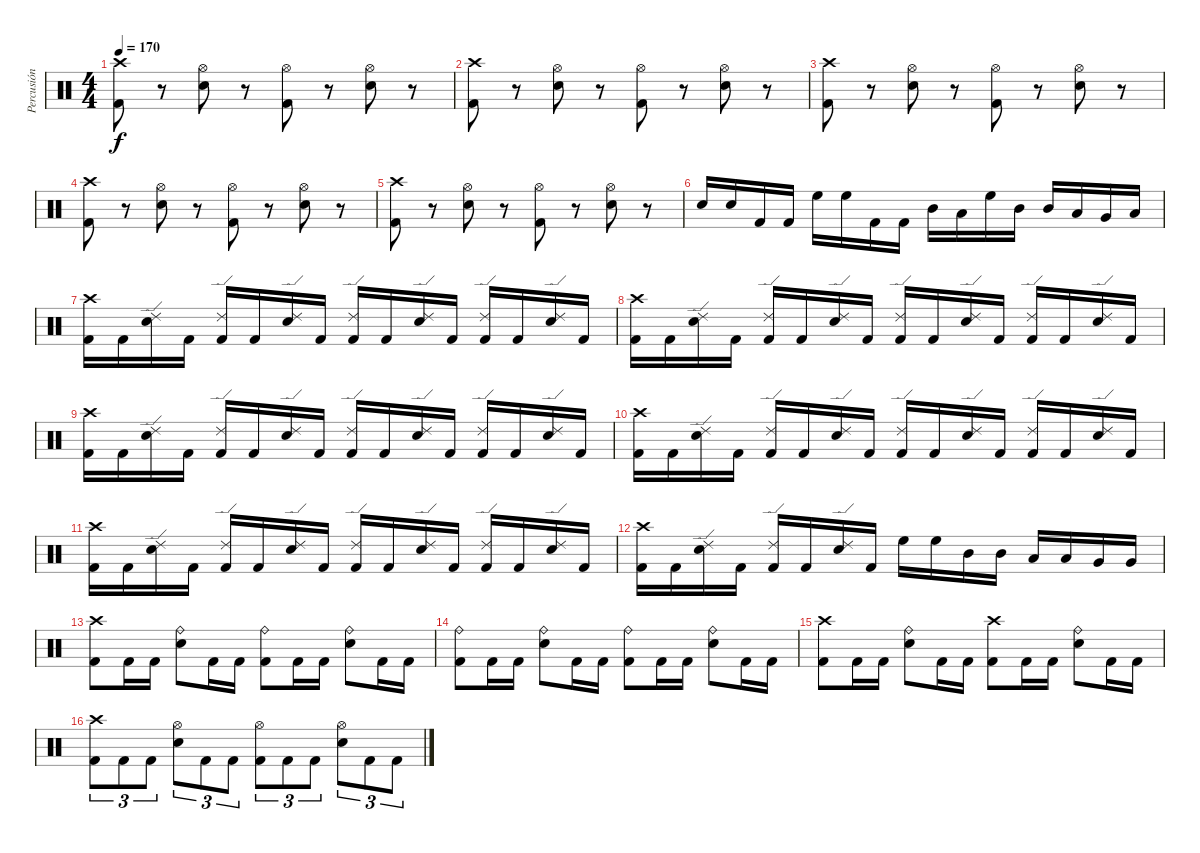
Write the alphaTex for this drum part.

\track ("Percusión" "Percusión") {instrument percussion}
\staff {score}
\articulation defaults
\ts (4 4)
\tempo 170
\clef neutral
\ks c
("Crash high (hit)" "Kick (hit) 2").8{dy f} r.8 ("Hi-Hat (open)" "Electric Snare (hit)").8 r.8 ("Hi-Hat (open)" "Kick (hit) 2").8 r.8 ("Hi-Hat (open)" "Electric Snare (hit)").8 r.8 |
("Crash high (hit)" "Kick (hit) 2").8 r.8 ("Hi-Hat (open)" "Electric Snare (hit)").8 r.8 ("Hi-Hat (open)" "Kick (hit) 2").8 r.8 ("Hi-Hat (open)" "Electric Snare (hit)").8 r.8 |
("Crash high (hit)" "Kick (hit) 2").8 r.8 ("Hi-Hat (open)" "Electric Snare (hit)").8 r.8 ("Hi-Hat (open)" "Kick (hit) 2").8 r.8 ("Hi-Hat (open)" "Electric Snare (hit)").8 r.8 |
("Crash high (hit)" "Kick (hit) 2").8 r.8 ("Hi-Hat (open)" "Electric Snare (hit)").8 r.8 ("Hi-Hat (open)" "Kick (hit) 2").8 r.8 ("Hi-Hat (open)" "Electric Snare (hit)").8 r.8 |
("Crash high (hit)" "Kick (hit) 2").8 r.8 ("Hi-Hat (open)" "Electric Snare (hit)").8 r.8 ("Hi-Hat (open)" "Kick (hit) 2").8 r.8 ("Hi-Hat (open)" "Electric Snare (hit)").8 r.8 |
"Electric Snare (hit)".16 "Electric Snare (hit)".16 "Kick (hit) 2".16 "Kick (hit) 2".16 "High Floor Tom (hit)".16 "High Floor Tom (hit)".16 "Kick (hit) 2".16 "Kick (hit) 2".16 "Mid Tom (hit)".16 "Low Tom (hit)".16 "High Floor Tom (hit)".16 "Mid Tom (hit)".16 "Mid Tom (hit)".16 "Low Tom (hit)".16 "Very Low Tom (hit)".16 "Low Floor Tom (hit)".16 |
("Crash high (hit)" "Kick (hit) 2").16 "Kick (hit) 2".16 ("Ride (edge) 2" "Electric Snare (hit)").16 "Kick (hit) 2".16 ("Ride (edge) 2" "Kick (hit) 2").16 "Kick (hit) 2".16 ("Ride (edge) 2" "Electric Snare (hit)").16 "Kick (hit) 2".16 ("Ride (edge) 2" "Kick (hit) 2").16 "Kick (hit) 2".16 ("Ride (edge) 2" "Electric Snare (hit)").16 "Kick (hit) 2".16 ("Ride (edge) 2" "Kick (hit) 2").16 "Kick (hit) 2".16 ("Ride (edge) 2" "Electric Snare (hit)").16 "Kick (hit) 2".16 |
("Crash high (hit)" "Kick (hit) 2").16 "Kick (hit) 2".16 ("Ride (edge) 2" "Electric Snare (hit)").16 "Kick (hit) 2".16 ("Ride (edge) 2" "Kick (hit) 2").16 "Kick (hit) 2".16 ("Ride (edge) 2" "Electric Snare (hit)").16 "Kick (hit) 2".16 ("Ride (edge) 2" "Kick (hit) 2").16 "Kick (hit) 2".16 ("Ride (edge) 2" "Electric Snare (hit)").16 "Kick (hit) 2".16 ("Ride (edge) 2" "Kick (hit) 2").16 "Kick (hit) 2".16 ("Ride (edge) 2" "Electric Snare (hit)").16 "Kick (hit) 2".16 |
("Crash high (hit)" "Kick (hit) 2").16 "Kick (hit) 2".16 ("Ride (edge) 2" "Electric Snare (hit)").16 "Kick (hit) 2".16 ("Ride (edge) 2" "Kick (hit) 2").16 "Kick (hit) 2".16 ("Ride (edge) 2" "Electric Snare (hit)").16 "Kick (hit) 2".16 ("Ride (edge) 2" "Kick (hit) 2").16 "Kick (hit) 2".16 ("Ride (edge) 2" "Electric Snare (hit)").16 "Kick (hit) 2".16 ("Ride (edge) 2" "Kick (hit) 2").16 "Kick (hit) 2".16 ("Ride (edge) 2" "Electric Snare (hit)").16 "Kick (hit) 2".16 |
("Crash high (hit)" "Kick (hit) 2").16 "Kick (hit) 2".16 ("Ride (edge) 2" "Electric Snare (hit)").16 "Kick (hit) 2".16 ("Ride (edge) 2" "Kick (hit) 2").16 "Kick (hit) 2".16 ("Ride (edge) 2" "Electric Snare (hit)").16 "Kick (hit) 2".16 ("Ride (edge) 2" "Kick (hit) 2").16 "Kick (hit) 2".16 ("Ride (edge) 2" "Electric Snare (hit)").16 "Kick (hit) 2".16 ("Ride (edge) 2" "Kick (hit) 2").16 "Kick (hit) 2".16 ("Ride (edge) 2" "Electric Snare (hit)").16 "Kick (hit) 2".16 |
("Crash high (hit)" "Kick (hit) 2").16 "Kick (hit) 2".16 ("Ride (edge) 2" "Electric Snare (hit)").16 "Kick (hit) 2".16 ("Ride (edge) 2" "Kick (hit) 2").16 "Kick (hit) 2".16 ("Ride (edge) 2" "Electric Snare (hit)").16 "Kick (hit) 2".16 ("Ride (edge) 2" "Kick (hit) 2").16 "Kick (hit) 2".16 ("Ride (edge) 2" "Electric Snare (hit)").16 "Kick (hit) 2".16 ("Ride (edge) 2" "Kick (hit) 2").16 "Kick (hit) 2".16 ("Ride (edge) 2" "Electric Snare (hit)").16 "Kick (hit) 2".16 |
("Crash high (hit)" "Kick (hit) 2").16 "Kick (hit) 2".16 ("Ride (edge) 2" "Electric Snare (hit)").16 "Kick (hit) 2".16 ("Ride (edge) 2" "Kick (hit) 2").16 "Kick (hit) 2".16 ("Ride (edge) 2" "Electric Snare (hit)").16 "Kick (hit) 2".16 "High Floor Tom (hit)".16 "High Floor Tom (hit)".16 "Mid Tom (hit)".16 "Mid Tom (hit)".16 "Low Tom (hit)".16 "Low Tom (hit)".16 "Very Low Tom (hit)".16 "Very Low Tom (hit)".16 |
("Crash high (hit)" "Kick (hit) 2").8 "Kick (hit) 2".16 "Kick (hit) 2".16 ("Ride (bell)" "Electric Snare (hit)").8 "Kick (hit) 2".16 "Kick (hit) 2".16 ("Ride (bell)" "Kick (hit) 2").8 "Kick (hit) 2".16 "Kick (hit) 2".16 ("Ride (bell)" "Electric Snare (hit)").8 "Kick (hit) 2".16 "Kick (hit) 2".16 |
("Ride (bell)" "Kick (hit) 2").8 "Kick (hit) 2".16 "Kick (hit) 2".16 ("Ride (bell)" "Electric Snare (hit)").8 "Kick (hit) 2".16 "Kick (hit) 2".16 ("Ride (bell)" "Kick (hit) 2").8 "Kick (hit) 2".16 "Kick (hit) 2".16 ("Ride (bell)" "Electric Snare (hit)").8 "Kick (hit) 2".16 "Kick (hit) 2".16 |
("Crash high (hit)" "Kick (hit) 2").8 "Kick (hit) 2".16 "Kick (hit) 2".16 ("Ride (bell)" "Electric Snare (hit)").8 "Kick (hit) 2".16 "Kick (hit) 2".16 ("Crash high (hit)" "Kick (hit) 2").8 "Kick (hit) 2".16 "Kick (hit) 2".16 ("Ride (bell)" "Electric Snare (hit)").8 "Kick (hit) 2".16 "Kick (hit) 2".16 |
("Crash high (hit)" "Kick (hit) 2").8{tu (3 2)} "Kick (hit) 2".8{tu (3 2)} "Kick (hit) 2".8{tu (3 2)} ("Hi-Hat (open)" "Electric Snare (hit)").8{tu (3 2)} "Kick (hit) 2".8{tu (3 2)} "Kick (hit) 2".8{tu (3 2)} ("Hi-Hat (open)" "Kick (hit) 2").8{tu (3 2)} "Kick (hit) 2".8{tu (3 2)} "Kick (hit) 2".8{tu (3 2)} ("Hi-Hat (open)" "Electric Snare (hit)").8{tu (3 2)} "Kick (hit) 2".8{tu (3 2)} "Kick (hit) 2".8{tu (3 2)}
